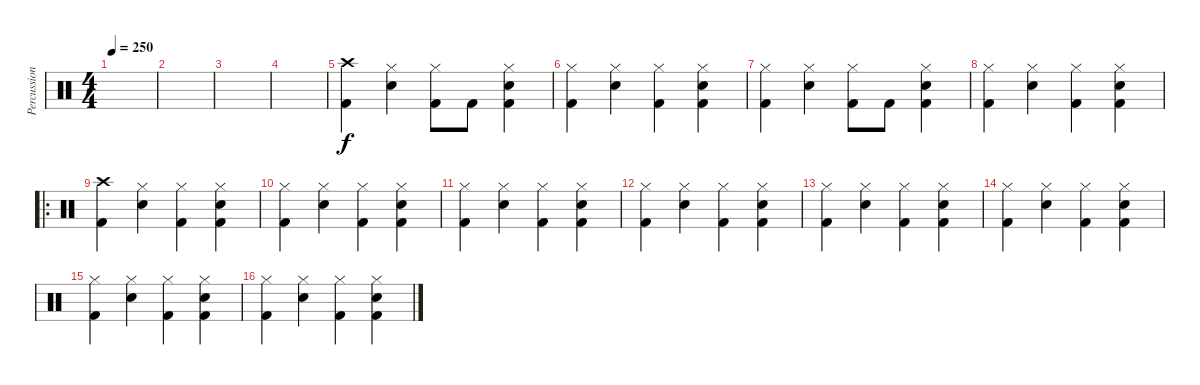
\track ("Percussion" "Percussion") {instrument percussion}
\staff {score}
\articulation defaults
\ts (4 4)
\tempo 250
\clef neutral
\ks c
|
|
|
|
("Kick (hit) 2" "Crash high (hit)").4 ("Electric Snare (hit)" "Hi-Hat (closed)").4 ("Kick (hit) 2" "Hi-Hat (closed)").8 "Kick (hit) 2".8 ("Electric Snare (hit)" "Kick (hit) 2" "Hi-Hat (closed)").4 |
("Kick (hit) 2" "Hi-Hat (closed)").4 ("Electric Snare (hit)" "Hi-Hat (closed)").4 ("Kick (hit) 2" "Hi-Hat (closed)").4 ("Electric Snare (hit)" "Kick (hit) 2" "Hi-Hat (closed)").4 |
("Kick (hit) 2" "Hi-Hat (closed)").4 ("Electric Snare (hit)" "Hi-Hat (closed)").4 ("Kick (hit) 2" "Hi-Hat (closed)").8 "Kick (hit) 2".8 ("Electric Snare (hit)" "Kick (hit) 2" "Hi-Hat (closed)").4 |
("Kick (hit) 2" "Hi-Hat (closed)").4 ("Electric Snare (hit)" "Hi-Hat (closed)").4 ("Kick (hit) 2" "Hi-Hat (closed)").4 ("Electric Snare (hit)" "Kick (hit) 2" "Hi-Hat (closed)").4 |
\ro
("Kick (hit) 2" "Crash high (hit)").4 ("Electric Snare (hit)" "Hi-Hat (closed)").4 ("Kick (hit) 2" "Hi-Hat (closed)").4 ("Electric Snare (hit)" "Kick (hit) 2" "Hi-Hat (closed)").4 |
("Kick (hit) 2" "Hi-Hat (closed)").4 ("Electric Snare (hit)" "Hi-Hat (closed)").4 ("Kick (hit) 2" "Hi-Hat (closed)").4 ("Electric Snare (hit)" "Kick (hit) 2" "Hi-Hat (closed)").4 |
("Kick (hit) 2" "Hi-Hat (closed)").4 ("Electric Snare (hit)" "Hi-Hat (closed)").4 ("Kick (hit) 2" "Hi-Hat (closed)").4 ("Electric Snare (hit)" "Kick (hit) 2" "Hi-Hat (closed)").4 |
("Kick (hit) 2" "Hi-Hat (closed)").4 ("Electric Snare (hit)" "Hi-Hat (closed)").4 ("Kick (hit) 2" "Hi-Hat (closed)").4 ("Electric Snare (hit)" "Kick (hit) 2" "Hi-Hat (closed)").4 |
("Kick (hit) 2" "Hi-Hat (closed)").4 ("Electric Snare (hit)" "Hi-Hat (closed)").4 ("Kick (hit) 2" "Hi-Hat (closed)").4 ("Electric Snare (hit)" "Kick (hit) 2" "Hi-Hat (closed)").4 |
("Kick (hit) 2" "Hi-Hat (closed)").4 ("Electric Snare (hit)" "Hi-Hat (closed)").4 ("Kick (hit) 2" "Hi-Hat (closed)").4 ("Electric Snare (hit)" "Kick (hit) 2" "Hi-Hat (closed)").4 |
("Kick (hit) 2" "Hi-Hat (closed)").4 ("Electric Snare (hit)" "Hi-Hat (closed)").4 ("Kick (hit) 2" "Hi-Hat (closed)").4 ("Electric Snare (hit)" "Kick (hit) 2" "Hi-Hat (closed)").4 |
("Kick (hit) 2" "Hi-Hat (closed)").4 ("Electric Snare (hit)" "Hi-Hat (closed)").4 ("Kick (hit) 2" "Hi-Hat (closed)").4 ("Electric Snare (hit)" "Kick (hit) 2" "Hi-Hat (closed)").4
